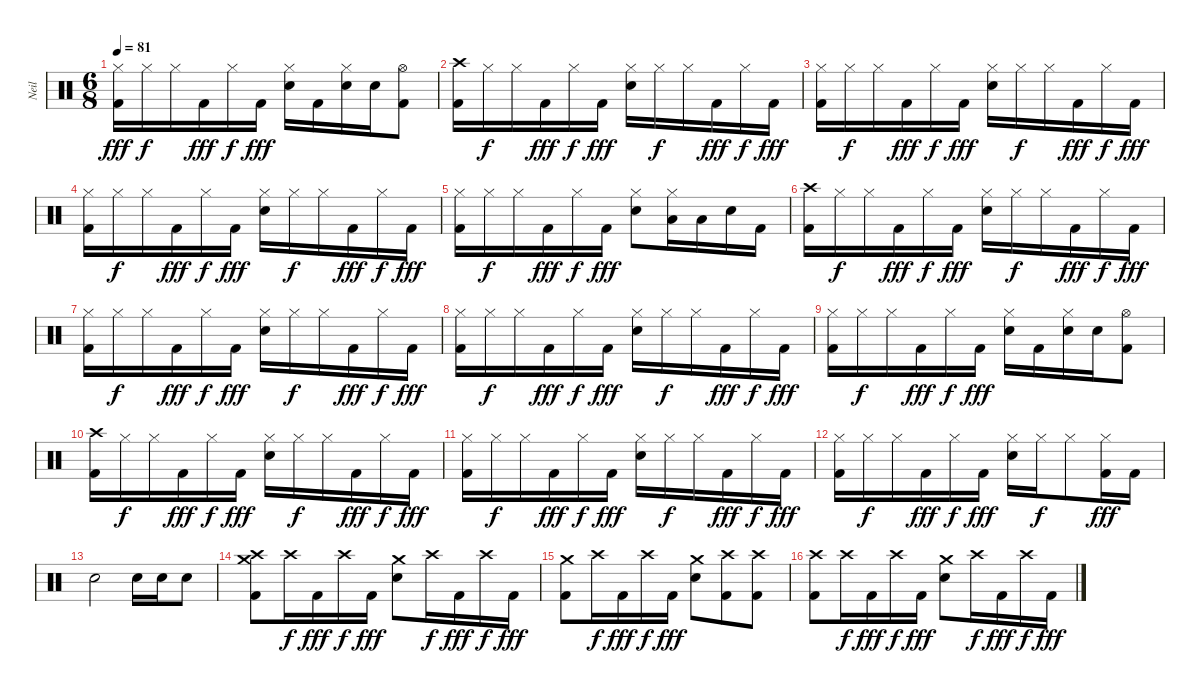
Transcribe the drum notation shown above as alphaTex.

\track ("Neil" "Neil") {instrument percussion}
\staff {score}
\articulation defaults
\ts (6 8)
\tempo 81
\clef neutral
\ks c
("Hi-Hat (closed)" "Kick (hit) 2").16{dy fff} "Hi-Hat (closed)".16{dy f} "Hi-Hat (closed)".16 "Kick (hit) 2".16{dy fff} "Hi-Hat (closed)".16{dy f} "Kick (hit) 2".16{dy fff} ("Hi-Hat (closed)" "Electric Snare (hit)").16 "Kick (hit) 2".16 ("Hi-Hat (closed)" "Electric Snare (hit)").16 "Electric Snare (hit)".16 ("Hi-Hat (open)" "Kick (hit) 2").8 |
("Crash high (hit)" "Kick (hit) 2").16 "Hi-Hat (closed)".16{dy f} "Hi-Hat (closed)".16 "Kick (hit) 2".16{dy fff} "Hi-Hat (closed)".16{dy f} "Kick (hit) 2".16{dy fff} ("Hi-Hat (closed)" "Electric Snare (hit)").16 "Hi-Hat (closed)".16{dy f} "Hi-Hat (closed)".16 "Kick (hit) 2".16{dy fff} "Hi-Hat (closed)".16{dy f} "Kick (hit) 2".16{dy fff} |
("Hi-Hat (closed)" "Kick (hit) 2").16 "Hi-Hat (closed)".16{dy f} "Hi-Hat (closed)".16 "Kick (hit) 2".16{dy fff} "Hi-Hat (closed)".16{dy f} "Kick (hit) 2".16{dy fff} ("Hi-Hat (closed)" "Electric Snare (hit)").16 "Hi-Hat (closed)".16{dy f} "Hi-Hat (closed)".16 "Kick (hit) 2".16{dy fff} "Hi-Hat (closed)".16{dy f} "Kick (hit) 2".16{dy fff} |
("Hi-Hat (closed)" "Kick (hit) 2").16 "Hi-Hat (closed)".16{dy f} "Hi-Hat (closed)".16 "Kick (hit) 2".16{dy fff} "Hi-Hat (closed)".16{dy f} "Kick (hit) 2".16{dy fff} ("Hi-Hat (closed)" "Electric Snare (hit)").16 "Hi-Hat (closed)".16{dy f} "Hi-Hat (closed)".16 "Kick (hit) 2".16{dy fff} "Hi-Hat (closed)".16{dy f} "Kick (hit) 2".16{dy fff} |
("Hi-Hat (closed)" "Kick (hit) 2").16 "Hi-Hat (closed)".16{dy f} "Hi-Hat (closed)".16 "Kick (hit) 2".16{dy fff} "Hi-Hat (closed)".16{dy f} "Kick (hit) 2".16{dy fff} ("Hi-Hat (closed)" "Electric Snare (hit)").8 ("Hi-Hat (closed)" "Low Tom (hit)").16 "Low Tom (hit)".16 "Electric Snare (hit)".16 "Kick (hit) 2".16 |
("Crash high (hit)" "Kick (hit) 2").16 "Hi-Hat (closed)".16{dy f} "Hi-Hat (closed)".16 "Kick (hit) 2".16{dy fff} "Hi-Hat (closed)".16{dy f} "Kick (hit) 2".16{dy fff} ("Hi-Hat (closed)" "Electric Snare (hit)").16 "Hi-Hat (closed)".16{dy f} "Hi-Hat (closed)".16 "Kick (hit) 2".16{dy fff} "Hi-Hat (closed)".16{dy f} "Kick (hit) 2".16{dy fff} |
("Hi-Hat (closed)" "Kick (hit) 2").16 "Hi-Hat (closed)".16{dy f} "Hi-Hat (closed)".16 "Kick (hit) 2".16{dy fff} "Hi-Hat (closed)".16{dy f} "Kick (hit) 2".16{dy fff} ("Hi-Hat (closed)" "Electric Snare (hit)").16 "Hi-Hat (closed)".16{dy f} "Hi-Hat (closed)".16 "Kick (hit) 2".16{dy fff} "Hi-Hat (closed)".16{dy f} "Kick (hit) 2".16{dy fff} |
("Hi-Hat (closed)" "Kick (hit) 2").16 "Hi-Hat (closed)".16{dy f} "Hi-Hat (closed)".16 "Kick (hit) 2".16{dy fff} "Hi-Hat (closed)".16{dy f} "Kick (hit) 2".16{dy fff} ("Hi-Hat (closed)" "Electric Snare (hit)").16 "Hi-Hat (closed)".16{dy f} "Hi-Hat (closed)".16 "Kick (hit) 2".16{dy fff} "Hi-Hat (closed)".16{dy f} "Kick (hit) 2".16{dy fff} |
("Hi-Hat (closed)" "Kick (hit) 2").16 "Hi-Hat (closed)".16{dy f} "Hi-Hat (closed)".16 "Kick (hit) 2".16{dy fff} "Hi-Hat (closed)".16{dy f} "Kick (hit) 2".16{dy fff} ("Hi-Hat (closed)" "Electric Snare (hit)").16 "Kick (hit) 2".16 ("Hi-Hat (closed)" "Electric Snare (hit)").16 "Electric Snare (hit)".16 ("Hi-Hat (open)" "Kick (hit) 2").8 |
("Crash high (hit)" "Kick (hit) 2").16 "Hi-Hat (closed)".16{dy f} "Hi-Hat (closed)".16 "Kick (hit) 2".16{dy fff} "Hi-Hat (closed)".16{dy f} "Kick (hit) 2".16{dy fff} ("Hi-Hat (closed)" "Electric Snare (hit)").16 "Hi-Hat (closed)".16{dy f} "Hi-Hat (closed)".16 "Kick (hit) 2".16{dy fff} "Hi-Hat (closed)".16{dy f} "Kick (hit) 2".16{dy fff} |
("Hi-Hat (closed)" "Kick (hit) 2").16 "Hi-Hat (closed)".16{dy f} "Hi-Hat (closed)".16 "Kick (hit) 2".16{dy fff} "Hi-Hat (closed)".16{dy f} "Kick (hit) 2".16{dy fff} ("Hi-Hat (closed)" "Electric Snare (hit)").16 "Hi-Hat (closed)".16{dy f} "Hi-Hat (closed)".16 "Kick (hit) 2".16{dy fff} "Hi-Hat (closed)".16{dy f} "Kick (hit) 2".16{dy fff} |
("Hi-Hat (closed)" "Kick (hit) 2").16 "Hi-Hat (closed)".16{dy f} "Hi-Hat (closed)".16 "Kick (hit) 2".16{dy fff} "Hi-Hat (closed)".16{dy f} "Kick (hit) 2".16{dy fff} ("Hi-Hat (closed)" "Electric Snare (hit)").16 "Hi-Hat (closed)".16{dy f} "Hi-Hat (closed)".8 ("Hi-Hat (closed)" "Kick (hit) 2").16{dy fff} "Kick (hit) 2".16 |
"Electric Snare (hit)".2 "Electric Snare (hit)".16 "Electric Snare (hit)".16 "Electric Snare (hit)".8 |
("Crash high (hit)" "Crash medium (hit)" "Kick (hit) 2").8 "Crash high (hit)".16{dy f} "Kick (hit) 2".16{dy fff} "Crash high (hit)".16{dy f} "Kick (hit) 2".16{dy fff} ("Crash medium (hit)" "Electric Snare (hit)").8 "Crash high (hit)".16{dy f} "Kick (hit) 2".16{dy fff} "Crash high (hit)".16{dy f} "Kick (hit) 2".16{dy fff} |
("Crash medium (hit)" "Kick (hit) 2").8 "Crash high (hit)".16{dy f} "Kick (hit) 2".16{dy fff} "Crash high (hit)".16{dy f} "Kick (hit) 2".16{dy fff} ("Crash medium (hit)" "Electric Snare (hit)").8 ("Crash high (hit)" "Kick (hit) 2").8 ("Crash high (hit)" "Kick (hit) 2").8 |
("Crash high (hit)" "Kick (hit) 2").8 "Crash high (hit)".16{dy f} "Kick (hit) 2".16{dy fff} "Crash high (hit)".16{dy f} "Kick (hit) 2".16{dy fff} ("Crash medium (hit)" "Electric Snare (hit)").8 "Crash high (hit)".16{dy f} "Kick (hit) 2".16{dy fff} "Crash high (hit)".16{dy f} "Kick (hit) 2".16{dy fff}
